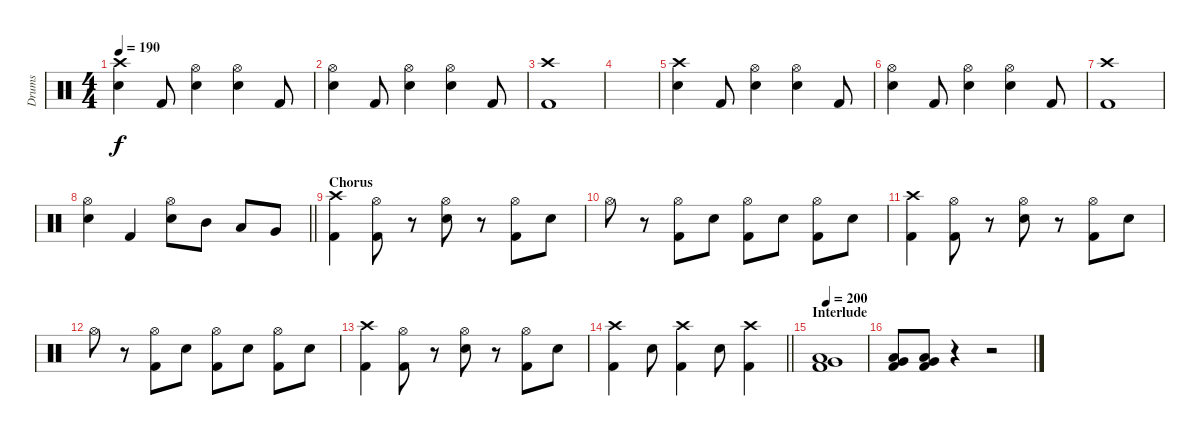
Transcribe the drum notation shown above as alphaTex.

\track ("Drums" "Drums") {instrument percussion}
\staff {score}
\articulation defaults
\ts (4 4)
\tempo 190
\clef neutral
\ks c
("Crash high (hit)" "Snare (hit) 2").4{dy f} "Kick (hit) 2".8 ("Snare (hit) 2" "Hi-Hat (open)").4 ("Snare (hit) 2" "Hi-Hat (open)").4 "Kick (hit) 2".8 |
("Snare (hit) 2" "Hi-Hat (open)").4 "Kick (hit) 2".8 ("Snare (hit) 2" "Hi-Hat (open)").4 ("Snare (hit) 2" "Hi-Hat (open)").4 "Kick (hit) 2".8 |
("Crash high (hit)" "Kick (hit) 2").1 |
|
("Crash high (hit)" "Snare (hit) 2").4 "Kick (hit) 2".8 ("Snare (hit) 2" "Hi-Hat (open)").4 ("Snare (hit) 2" "Hi-Hat (open)").4 "Kick (hit) 2".8 |
("Snare (hit) 2" "Hi-Hat (open)").4 "Kick (hit) 2".8 ("Snare (hit) 2" "Hi-Hat (open)").4 ("Snare (hit) 2" "Hi-Hat (open)").4 "Kick (hit) 2".8 |
("Crash high (hit)" "Kick (hit) 2").1 |
\barLineRight lightlight
("Snare (hit) 2" "Hi-Hat (open)").4 "Kick (hit) 2".4 ("Snare (hit) 2" "Hi-Hat (open)").8 "Mid Tom (hit)".8 "Low Tom (hit)".8 "Very Low Tom (hit)".8 |
\section ("" "Chorus")
("Crash high (hit)" "Kick (hit) 2").4 ("Hi-Hat (open)" "Kick (hit) 2").8 r.8 ("Snare (hit) 2" "Hi-Hat (open)").8 r.8 ("Hi-Hat (open)" "Kick (hit) 2").8 "Snare (hit) 2".8 |
"Hi-Hat (open)".8 r.8 ("Hi-Hat (open)" "Kick (hit) 2").8 "Snare (hit) 2".8 ("Hi-Hat (open)" "Kick (hit) 2").8 "Snare (hit) 2".8 ("Hi-Hat (open)" "Kick (hit) 2").8 "Snare (hit) 2".8 |
("Crash high (hit)" "Kick (hit) 2").4 ("Hi-Hat (open)" "Kick (hit) 2").8 r.8 ("Snare (hit) 2" "Hi-Hat (open)").8 r.8 ("Hi-Hat (open)" "Kick (hit) 2").8 "Snare (hit) 2".8 |
"Hi-Hat (open)".8 r.8 ("Hi-Hat (open)" "Kick (hit) 2").8 "Snare (hit) 2".8 ("Hi-Hat (open)" "Kick (hit) 2").8 "Snare (hit) 2".8 ("Hi-Hat (open)" "Kick (hit) 2").8 "Snare (hit) 2".8 |
("Crash high (hit)" "Kick (hit) 2").4 ("Hi-Hat (open)" "Kick (hit) 2").8 r.8 ("Snare (hit) 2" "Hi-Hat (open)").8 r.8 ("Hi-Hat (open)" "Kick (hit) 2").8 "Snare (hit) 2".8 |
\barLineRight lightlight
("Crash high (hit)" "Kick (hit) 2").4 "Snare (hit) 2".8 ("Crash high (hit)" "Kick (hit) 2").4 "Snare (hit) 2".8 ("Crash high (hit)" "Kick (hit) 2").4 |
\section ("" "Interlude")
\tempo 200
("Low Tom (hit)" "Very Low Tom (hit)" "Kick (hit) 2").1 |
("Low Tom (hit)" "Very Low Tom (hit)" "Kick (hit) 2").8 ("Low Tom (hit)" "Very Low Tom (hit)" "Kick (hit) 2").8 r.4 r.2
